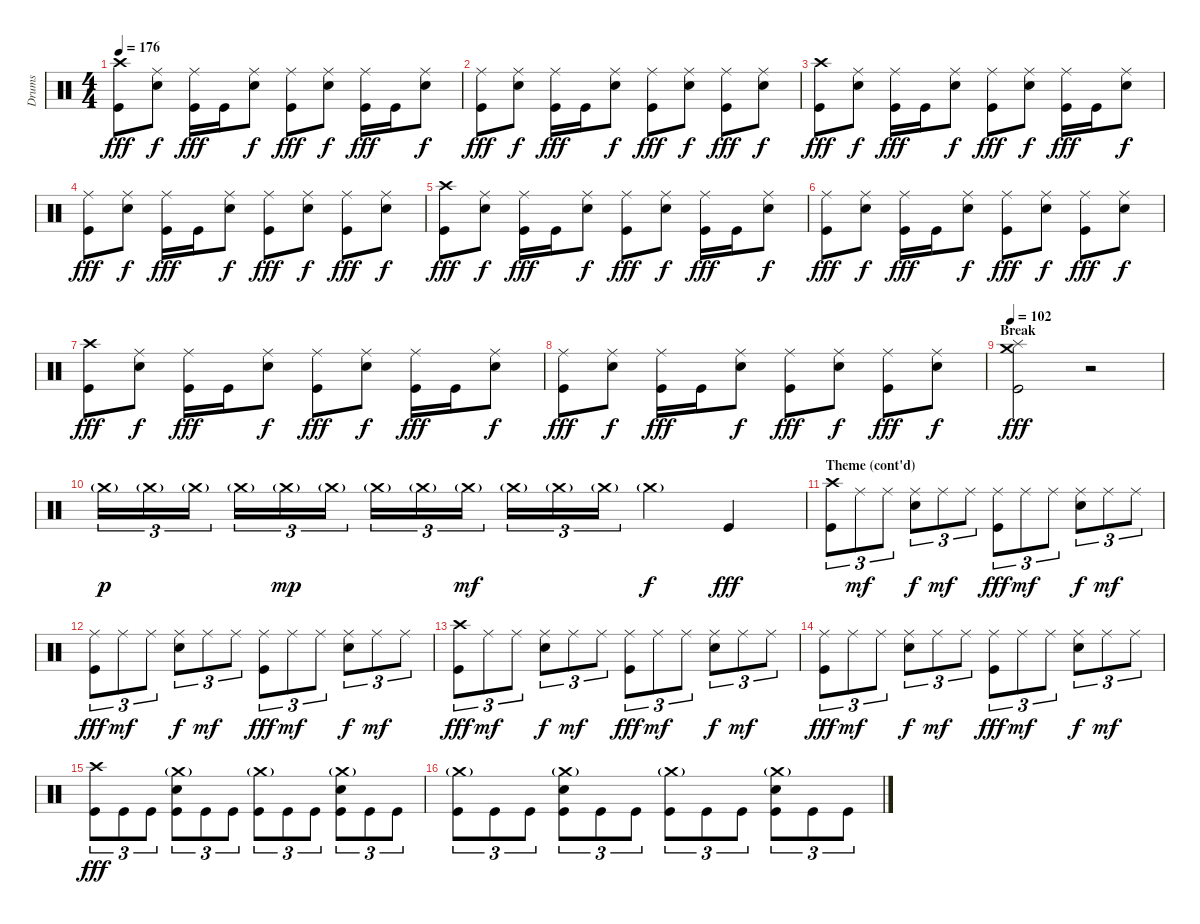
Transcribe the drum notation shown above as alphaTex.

\track ("Drums" "Drums") {instrument percussion}
\staff {score}
\articulation defaults
\ts (4 4)
\tempo 176
\clef neutral
\ks c
("Crash high (hit)" "Kick (hit)").8{dy fff} ("Ride (middle)" "Snare (hit) 2").8{dy f} ("Ride (middle)" "Kick (hit)").16{dy fff} "Kick (hit)".16 ("Ride (middle)" "Snare (hit) 2").8{dy f} ("Ride (middle)" "Kick (hit)").8{dy fff} ("Ride (middle)" "Snare (hit) 2").8{dy f} ("Ride (middle)" "Kick (hit)").16{dy fff} "Kick (hit)".16 ("Ride (middle)" "Snare (hit) 2").8{dy f} |
("Ride (middle)" "Kick (hit)").8{dy fff} ("Ride (middle)" "Snare (hit) 2").8{dy f} ("Ride (middle)" "Kick (hit)").16{dy fff} "Kick (hit)".16 ("Ride (middle)" "Snare (hit) 2").8{dy f} ("Ride (middle)" "Kick (hit)").8{dy fff} ("Ride (middle)" "Snare (hit) 2").8{dy f} ("Ride (middle)" "Kick (hit)").8{dy fff} ("Ride (middle)" "Snare (hit) 2").8{dy f} |
("Crash high (hit)" "Kick (hit)").8{dy fff} ("Ride (middle)" "Snare (hit) 2").8{dy f} ("Ride (middle)" "Kick (hit)").16{dy fff} "Kick (hit)".16 ("Ride (middle)" "Snare (hit) 2").8{dy f} ("Ride (middle)" "Kick (hit)").8{dy fff} ("Ride (middle)" "Snare (hit) 2").8{dy f} ("Ride (middle)" "Kick (hit)").16{dy fff} "Kick (hit)".16 ("Ride (middle)" "Snare (hit) 2").8{dy f} |
("Ride (middle)" "Kick (hit)").8{dy fff} ("Ride (middle)" "Snare (hit) 2").8{dy f} ("Ride (middle)" "Kick (hit)").16{dy fff} "Kick (hit)".16 ("Ride (middle)" "Snare (hit) 2").8{dy f} ("Ride (middle)" "Kick (hit)").8{dy fff} ("Ride (middle)" "Snare (hit) 2").8{dy f} ("Ride (middle)" "Kick (hit)").8{dy fff} ("Ride (middle)" "Snare (hit) 2").8{dy f} |
("Crash high (hit)" "Kick (hit)").8{dy fff} ("Ride (middle)" "Snare (hit) 2").8{dy f} ("Ride (middle)" "Kick (hit)").16{dy fff} "Kick (hit)".16 ("Ride (middle)" "Snare (hit) 2").8{dy f} ("Ride (middle)" "Kick (hit)").8{dy fff} ("Ride (middle)" "Snare (hit) 2").8{dy f} ("Ride (middle)" "Kick (hit)").16{dy fff} "Kick (hit)".16 ("Ride (middle)" "Snare (hit) 2").8{dy f} |
("Ride (middle)" "Kick (hit)").8{dy fff} ("Ride (middle)" "Snare (hit) 2").8{dy f} ("Ride (middle)" "Kick (hit)").16{dy fff} "Kick (hit)".16 ("Ride (middle)" "Snare (hit) 2").8{dy f} ("Ride (middle)" "Kick (hit)").8{dy fff} ("Ride (middle)" "Snare (hit) 2").8{dy f} ("Ride (middle)" "Kick (hit)").8{dy fff} ("Ride (middle)" "Snare (hit) 2").8{dy f} |
("Crash high (hit)" "Kick (hit)").8{dy fff} ("Ride (middle)" "Snare (hit) 2").8{dy f} ("Ride (middle)" "Kick (hit)").16{dy fff} "Kick (hit)".16 ("Ride (middle)" "Snare (hit) 2").8{dy f} ("Ride (middle)" "Kick (hit)").8{dy fff} ("Ride (middle)" "Snare (hit) 2").8{dy f} ("Ride (middle)" "Kick (hit)").16{dy fff} "Kick (hit)".16 ("Ride (middle)" "Snare (hit) 2").8{dy f} |
("Ride (middle)" "Kick (hit)").8{dy fff} ("Ride (middle)" "Snare (hit) 2").8{dy f} ("Ride (middle)" "Kick (hit)").16{dy fff} "Kick (hit)".16 ("Ride (middle)" "Snare (hit) 2").8{dy f} ("Ride (middle)" "Kick (hit)").8{dy fff} ("Ride (middle)" "Snare (hit) 2").8{dy f} ("Ride (middle)" "Kick (hit)").8{dy fff} ("Ride (middle)" "Snare (hit) 2").8{dy f} |
\section ("" "Break")
\tempo 102
("Crash medium (hit)" "Splash (hit)" "Kick (hit)").2{dy fff} r.2 |
"Crash medium (hit)"{g}.16{tu (3 2) dy p} "Crash medium (hit)"{g}.16{tu (3 2)} "Crash medium (hit)"{g}.16{tu (3 2)} "Crash medium (hit)"{g}.16{tu (3 2)} "Crash medium (hit)"{g}.16{tu (3 2) dy mp} "Crash medium (hit)"{g}.16{tu (3 2)} "Crash medium (hit)"{g}.16{tu (3 2)} "Crash medium (hit)"{g}.16{tu (3 2)} "Crash medium (hit)"{g}.16{tu (3 2) dy mf} "Crash medium (hit)"{g}.16{tu (3 2)} "Crash medium (hit)"{g}.16{tu (3 2)} "Crash medium (hit)"{g}.16{tu (3 2)} "Crash medium (hit)"{g}.4{dy f} "Kick (hit)".4{dy fff} |
\section ("" "Theme (cont'd)")
("Crash high (hit)" "Kick (hit)").8{tu (3 2)} "Ride (middle)".8{tu (3 2) dy mf} "Ride (middle)".8{tu (3 2)} ("Ride (middle)" "Snare (hit) 2").8{tu (3 2) dy f} "Ride (middle)".8{tu (3 2) dy mf} "Ride (middle)".8{tu (3 2)} ("Ride (middle)" "Kick (hit)").8{tu (3 2) dy fff} "Ride (middle)".8{tu (3 2) dy mf} "Ride (middle)".8{tu (3 2)} ("Ride (middle)" "Snare (hit) 2").8{tu (3 2) dy f} "Ride (middle)".8{tu (3 2) dy mf} "Ride (middle)".8{tu (3 2)} |
("Ride (middle)" "Kick (hit)").8{tu (3 2) dy fff} "Ride (middle)".8{tu (3 2) dy mf} "Ride (middle)".8{tu (3 2)} ("Ride (middle)" "Snare (hit) 2").8{tu (3 2) dy f} "Ride (middle)".8{tu (3 2) dy mf} "Ride (middle)".8{tu (3 2)} ("Ride (middle)" "Kick (hit)").8{tu (3 2) dy fff} "Ride (middle)".8{tu (3 2) dy mf} "Ride (middle)".8{tu (3 2)} ("Ride (middle)" "Snare (hit) 2").8{tu (3 2) dy f} "Ride (middle)".8{tu (3 2) dy mf} "Ride (middle)".8{tu (3 2)} |
("Crash high (hit)" "Kick (hit)").8{tu (3 2) dy fff} "Ride (middle)".8{tu (3 2) dy mf} "Ride (middle)".8{tu (3 2)} ("Ride (middle)" "Snare (hit) 2").8{tu (3 2) dy f} "Ride (middle)".8{tu (3 2) dy mf} "Ride (middle)".8{tu (3 2)} ("Ride (middle)" "Kick (hit)").8{tu (3 2) dy fff} "Ride (middle)".8{tu (3 2) dy mf} "Ride (middle)".8{tu (3 2)} ("Ride (middle)" "Snare (hit) 2").8{tu (3 2) dy f} "Ride (middle)".8{tu (3 2) dy mf} "Ride (middle)".8{tu (3 2)} |
("Ride (middle)" "Kick (hit)").8{tu (3 2) dy fff} "Ride (middle)".8{tu (3 2) dy mf} "Ride (middle)".8{tu (3 2)} ("Ride (middle)" "Snare (hit) 2").8{tu (3 2) dy f} "Ride (middle)".8{tu (3 2) dy mf} "Ride (middle)".8{tu (3 2)} ("Ride (middle)" "Kick (hit)").8{tu (3 2) dy fff} "Ride (middle)".8{tu (3 2) dy mf} "Ride (middle)".8{tu (3 2)} ("Ride (middle)" "Snare (hit) 2").8{tu (3 2) dy f} "Ride (middle)".8{tu (3 2) dy mf} "Ride (middle)".8{tu (3 2)} |
("Crash high (hit)" "Kick (hit)").8{tu (3 2) dy fff} "Kick (hit)".8{tu (3 2)} "Kick (hit)".8{tu (3 2)} ("Crash medium (hit)"{g} "Snare (hit) 2" "Kick (hit)").8{tu (3 2)} "Kick (hit)".8{tu (3 2)} "Kick (hit)".8{tu (3 2)} ("Crash medium (hit)"{g} "Kick (hit)").8{tu (3 2)} "Kick (hit)".8{tu (3 2)} "Kick (hit)".8{tu (3 2)} ("Crash medium (hit)"{g} "Snare (hit) 2" "Kick (hit)").8{tu (3 2)} "Kick (hit)".8{tu (3 2)} "Kick (hit)".8{tu (3 2)} |
("Crash medium (hit)"{g} "Kick (hit)").8{tu (3 2)} "Kick (hit)".8{tu (3 2)} "Kick (hit)".8{tu (3 2)} ("Crash medium (hit)"{g} "Snare (hit) 2" "Kick (hit)").8{tu (3 2)} "Kick (hit)".8{tu (3 2)} "Kick (hit)".8{tu (3 2)} ("Crash medium (hit)"{g} "Kick (hit)").8{tu (3 2)} "Kick (hit)".8{tu (3 2)} "Kick (hit)".8{tu (3 2)} ("Crash medium (hit)"{g} "Snare (hit) 2" "Kick (hit)").8{tu (3 2)} "Kick (hit)".8{tu (3 2)} "Kick (hit)".8{tu (3 2)}
